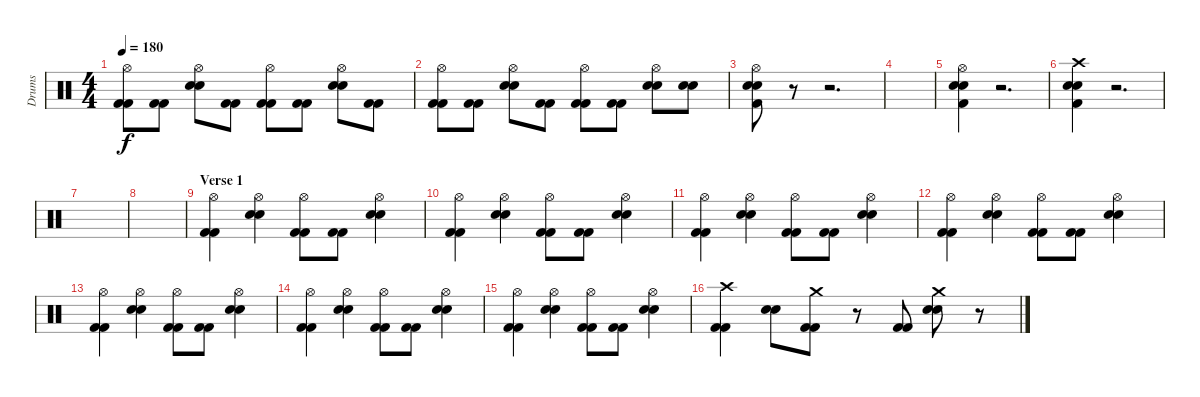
\track ("Drums" "Drums") {instrument percussion}
\staff {score}
\articulation defaults
\ts (4 4)
\tempo 180
\clef neutral
\ks c
("Hi-Hat (open)" "Kick (hit) 2" "Kick (hit) 2").8{dy f} ("Kick (hit) 2" "Kick (hit) 2").8 ("Hi-Hat (open)" "Snare (hit) 2" "Snare (hit) 2").8 ("Kick (hit) 2" "Kick (hit) 2").8 ("Hi-Hat (open)" "Kick (hit) 2" "Kick (hit) 2").8 ("Kick (hit) 2" "Kick (hit) 2").8 ("Hi-Hat (open)" "Snare (hit) 2" "Snare (hit) 2").8 ("Kick (hit) 2" "Kick (hit) 2").8 |
("Hi-Hat (open)" "Kick (hit) 2" "Kick (hit) 2").8 ("Kick (hit) 2" "Kick (hit) 2").8 ("Hi-Hat (open)" "Snare (hit) 2" "Snare (hit) 2").8 ("Kick (hit) 2" "Kick (hit) 2").8 ("Hi-Hat (open)" "Kick (hit) 2" "Kick (hit) 2").8 ("Kick (hit) 2" "Kick (hit) 2").8 ("Hi-Hat (open)" "Snare (hit) 2" "Snare (hit) 2").8 ("Snare (hit) 2" "Snare (hit) 2").8 |
("Hi-Hat (open)" "Snare (hit) 2" "Snare (hit) 2" "Kick (hit) 2").8 r.8 r.2{d} |
|
("Hi-Hat (open)" "Snare (hit) 2" "Snare (hit) 2" "Kick (hit) 2").4 r.2{d} |
("Crash high (hit)" "Snare (hit) 2" "Snare (hit) 2" "Kick (hit) 2").4 r.2{d} |
|
|
\section ("" "Verse 1")
("Hi-Hat (open)" "Kick (hit) 2" "Kick (hit) 2").4 ("Hi-Hat (open)" "Snare (hit) 2" "Snare (hit) 2").4 ("Hi-Hat (open)" "Kick (hit) 2" "Kick (hit) 2").8 ("Kick (hit) 2" "Kick (hit) 2").8 ("Hi-Hat (open)" "Snare (hit) 2" "Snare (hit) 2").4 |
("Hi-Hat (open)" "Kick (hit) 2" "Kick (hit) 2").4 ("Hi-Hat (open)" "Snare (hit) 2" "Snare (hit) 2").4 ("Hi-Hat (open)" "Kick (hit) 2" "Kick (hit) 2").8 ("Kick (hit) 2" "Kick (hit) 2").8 ("Hi-Hat (open)" "Snare (hit) 2" "Snare (hit) 2").4 |
("Hi-Hat (open)" "Kick (hit) 2" "Kick (hit) 2").4 ("Hi-Hat (open)" "Snare (hit) 2" "Snare (hit) 2").4 ("Hi-Hat (open)" "Kick (hit) 2" "Kick (hit) 2").8 ("Kick (hit) 2" "Kick (hit) 2").8 ("Hi-Hat (open)" "Snare (hit) 2" "Snare (hit) 2").4 |
("Hi-Hat (open)" "Kick (hit) 2" "Kick (hit) 2").4 ("Hi-Hat (open)" "Snare (hit) 2" "Snare (hit) 2").4 ("Hi-Hat (open)" "Kick (hit) 2" "Kick (hit) 2").8 ("Kick (hit) 2" "Kick (hit) 2").8 ("Hi-Hat (open)" "Snare (hit) 2" "Snare (hit) 2").4 |
("Hi-Hat (open)" "Kick (hit) 2" "Kick (hit) 2").4 ("Hi-Hat (open)" "Snare (hit) 2" "Snare (hit) 2").4 ("Hi-Hat (open)" "Kick (hit) 2" "Kick (hit) 2").8 ("Kick (hit) 2" "Kick (hit) 2").8 ("Hi-Hat (open)" "Snare (hit) 2" "Snare (hit) 2").4 |
("Hi-Hat (open)" "Kick (hit) 2" "Kick (hit) 2").4 ("Hi-Hat (open)" "Snare (hit) 2" "Snare (hit) 2").4 ("Hi-Hat (open)" "Kick (hit) 2" "Kick (hit) 2").8 ("Kick (hit) 2" "Kick (hit) 2").8 ("Hi-Hat (open)" "Snare (hit) 2" "Snare (hit) 2").4 |
("Hi-Hat (open)" "Kick (hit) 2" "Kick (hit) 2").4 ("Hi-Hat (open)" "Snare (hit) 2" "Snare (hit) 2").4 ("Hi-Hat (open)" "Kick (hit) 2" "Kick (hit) 2").8 ("Kick (hit) 2" "Kick (hit) 2").8 ("Hi-Hat (open)" "Snare (hit) 2" "Snare (hit) 2").4 |
("Crash high (hit)" "Kick (hit) 2" "Kick (hit) 2").4 ("Snare (hit) 2" "Snare (hit) 2").8 ("Crash medium (hit)" "Kick (hit) 2" "Kick (hit) 2").8 r.8 ("Kick (hit) 2" "Kick (hit) 2").8 ("Crash medium (hit)" "Snare (hit) 2" "Snare (hit) 2").8 r.8
